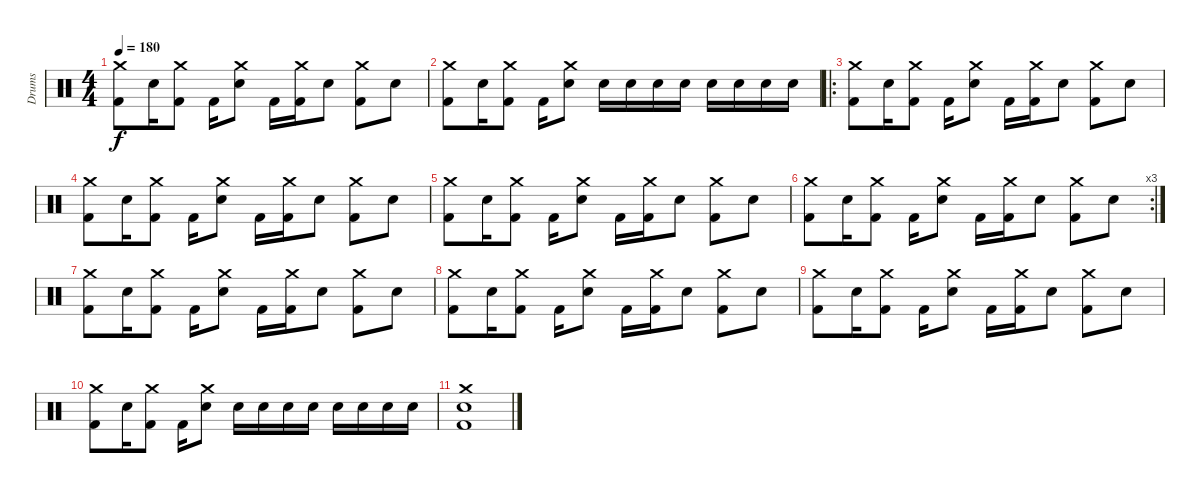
\track ("Drums" "Drums") {instrument percussion}
\staff {score}
\articulation defaults
\ts (4 4)
\tempo 180
\clef neutral
\ks c
("Kick (hit) 2" "Crash medium (hit)").8{dy f} "Snare (hit) 2".16 ("Crash medium (hit)" "Kick (hit) 2").8 "Kick (hit) 2".16 ("Crash medium (hit)" "Snare (hit) 2").8 "Kick (hit) 2".16 ("Crash medium (hit)" "Kick (hit) 2").16 "Snare (hit) 2".8 ("Crash medium (hit)" "Kick (hit) 2").8 "Snare (hit) 2".8 |
("Kick (hit) 2" "Crash medium (hit)").8 "Snare (hit) 2".16 ("Crash medium (hit)" "Kick (hit) 2").8 "Kick (hit) 2".16 ("Crash medium (hit)" "Snare (hit) 2").8 "Snare (hit) 2".16 "Snare (hit) 2".16 "Snare (hit) 2".16 "Snare (hit) 2".16 "Snare (hit) 2".16 "Snare (hit) 2".16 "Snare (hit) 2".16 "Snare (hit) 2".16 |
\ro
("Kick (hit) 2" "Crash medium (hit)").8 "Snare (hit) 2".16 ("Crash medium (hit)" "Kick (hit) 2").8 "Kick (hit) 2".16 ("Crash medium (hit)" "Snare (hit) 2").8 "Kick (hit) 2".16 ("Crash medium (hit)" "Kick (hit) 2").16 "Snare (hit) 2".8 ("Crash medium (hit)" "Kick (hit) 2").8 "Snare (hit) 2".8 |
("Kick (hit) 2" "Crash medium (hit)").8 "Snare (hit) 2".16 ("Crash medium (hit)" "Kick (hit) 2").8 "Kick (hit) 2".16 ("Crash medium (hit)" "Snare (hit) 2").8 "Kick (hit) 2".16 ("Crash medium (hit)" "Kick (hit) 2").16 "Snare (hit) 2".8 ("Crash medium (hit)" "Kick (hit) 2").8 "Snare (hit) 2".8 |
("Kick (hit) 2" "Crash medium (hit)").8 "Snare (hit) 2".16 ("Crash medium (hit)" "Kick (hit) 2").8 "Kick (hit) 2".16 ("Crash medium (hit)" "Snare (hit) 2").8 "Kick (hit) 2".16 ("Crash medium (hit)" "Kick (hit) 2").16 "Snare (hit) 2".8 ("Crash medium (hit)" "Kick (hit) 2").8 "Snare (hit) 2".8 |
\rc 3
("Kick (hit) 2" "Crash medium (hit)").8 "Snare (hit) 2".16 ("Crash medium (hit)" "Kick (hit) 2").8 "Kick (hit) 2".16 ("Crash medium (hit)" "Snare (hit) 2").8 "Kick (hit) 2".16 ("Crash medium (hit)" "Kick (hit) 2").16 "Snare (hit) 2".8 ("Crash medium (hit)" "Kick (hit) 2").8 "Snare (hit) 2".8 |
("Kick (hit) 2" "Crash medium (hit)").8 "Snare (hit) 2".16 ("Crash medium (hit)" "Kick (hit) 2").8 "Kick (hit) 2".16 ("Crash medium (hit)" "Snare (hit) 2").8 "Kick (hit) 2".16 ("Crash medium (hit)" "Kick (hit) 2").16 "Snare (hit) 2".8 ("Crash medium (hit)" "Kick (hit) 2").8 "Snare (hit) 2".8 |
("Kick (hit) 2" "Crash medium (hit)").8 "Snare (hit) 2".16 ("Crash medium (hit)" "Kick (hit) 2").8 "Kick (hit) 2".16 ("Crash medium (hit)" "Snare (hit) 2").8 "Kick (hit) 2".16 ("Crash medium (hit)" "Kick (hit) 2").16 "Snare (hit) 2".8 ("Crash medium (hit)" "Kick (hit) 2").8 "Snare (hit) 2".8 |
("Kick (hit) 2" "Crash medium (hit)").8 "Snare (hit) 2".16 ("Crash medium (hit)" "Kick (hit) 2").8 "Kick (hit) 2".16 ("Crash medium (hit)" "Snare (hit) 2").8 "Kick (hit) 2".16 ("Crash medium (hit)" "Kick (hit) 2").16 "Snare (hit) 2".8 ("Crash medium (hit)" "Kick (hit) 2").8 "Snare (hit) 2".8 |
("Kick (hit) 2" "Crash medium (hit)").8 "Snare (hit) 2".16 ("Crash medium (hit)" "Kick (hit) 2").8 "Kick (hit) 2".16 ("Crash medium (hit)" "Snare (hit) 2").8 "Snare (hit) 2".16 "Snare (hit) 2".16 "Snare (hit) 2".16 "Snare (hit) 2".16 "Snare (hit) 2".16 "Snare (hit) 2".16 "Snare (hit) 2".16 "Snare (hit) 2".16 |
("Crash medium (hit)" "Kick (hit) 2" "Snare (hit) 2").1
